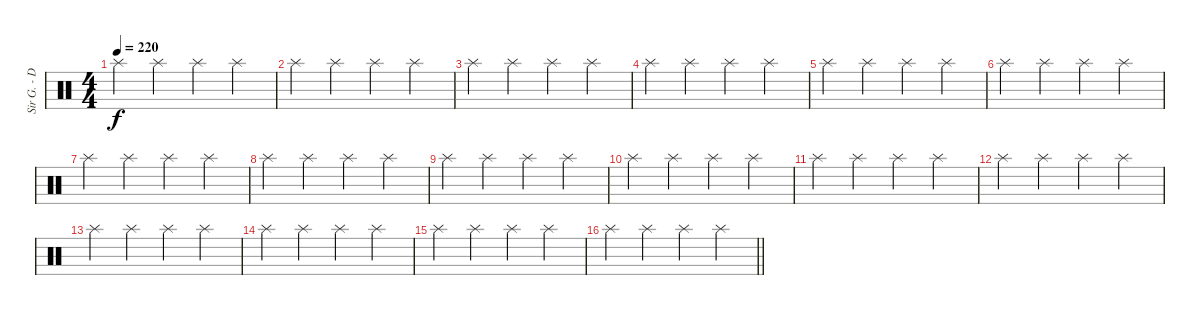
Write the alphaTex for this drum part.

\track ("Sir G. - Drums" "Sir G. - D") {instrument percussion}
\staff {score}
\articulation defaults
\ts (4 4)
\tempo 220
\clef neutral
\ks c "Splash (hit)".4{dy f} "Splash (hit)".4 "Splash (hit)".4 "Splash (hit)".4
|
"Splash (hit)".4 "Splash (hit)".4 "Splash (hit)".4 "Splash (hit)".4 |
"Splash (hit)".4 "Splash (hit)".4 "Splash (hit)".4 "Splash (hit)".4 |
"Splash (hit)".4 "Splash (hit)".4 "Splash (hit)".4 "Splash (hit)".4 |
"Splash (hit)".4 "Splash (hit)".4 "Splash (hit)".4 "Splash (hit)".4 |
"Splash (hit)".4 "Splash (hit)".4 "Splash (hit)".4 "Splash (hit)".4 |
"Splash (hit)".4 "Splash (hit)".4 "Splash (hit)".4 "Splash (hit)".4 |
"Splash (hit)".4 "Splash (hit)".4 "Splash (hit)".4 "Splash (hit)".4 |
"Splash (hit)".4 "Splash (hit)".4 "Splash (hit)".4 "Splash (hit)".4 |
"Splash (hit)".4 "Splash (hit)".4 "Splash (hit)".4 "Splash (hit)".4 |
"Splash (hit)".4 "Splash (hit)".4 "Splash (hit)".4 "Splash (hit)".4 |
"Splash (hit)".4 "Splash (hit)".4 "Splash (hit)".4 "Splash (hit)".4 |
"Splash (hit)".4 "Splash (hit)".4 "Splash (hit)".4 "Splash (hit)".4 |
"Splash (hit)".4 "Splash (hit)".4 "Splash (hit)".4 "Splash (hit)".4 |
"Splash (hit)".4 "Splash (hit)".4 "Splash (hit)".4 "Splash (hit)".4 |
\barLineRight lightlight "Splash (hit)".4 "Splash (hit)".4 "Splash (hit)".4 "Splash (hit)".4
